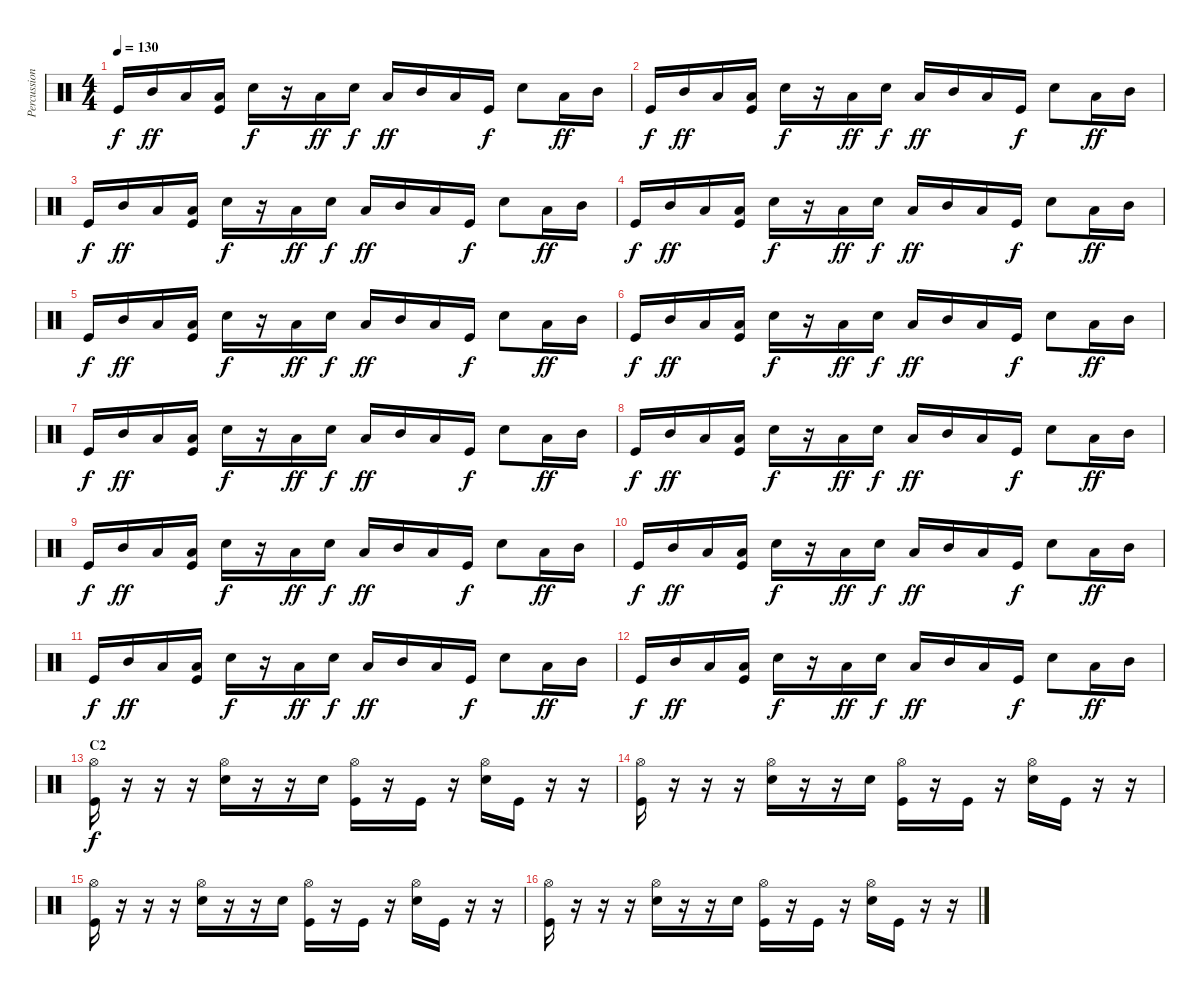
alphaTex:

\track ("Percussions" "Percussion") {instrument percussion}
\staff {score}
\articulation defaults
\ts (4 4)
\tempo 130
\clef neutral
\ks c "Kick (hit)".16{dy f} "Mid Tom (hit)".16{dy ff} "Low Tom (hit)".16
("Low Tom (hit)" "Kick (hit)").16 "Snare (hit) 2".16{dy f} r.16 "Low Tom (hit)".16{dy ff} "Snare (hit) 2".16{dy f} "Low Tom (hit)".16{dy ff} "Mid Tom (hit)".16 "Low Tom (hit)".16 "Kick (hit)".16{dy f} "Snare (hit) 2".8 "Low Tom (hit)".16{dy ff} "Mid Tom (hit)".16 |
"Kick (hit)".16{dy f} "Mid Tom (hit)".16{dy ff} "Low Tom (hit)".16 ("Low Tom (hit)" "Kick (hit)").16 "Snare (hit) 2".16{dy f} r.16 "Low Tom (hit)".16{dy ff} "Snare (hit) 2".16{dy f} "Low Tom (hit)".16{dy ff} "Mid Tom (hit)".16 "Low Tom (hit)".16 "Kick (hit)".16{dy f} "Snare (hit) 2".8 "Low Tom (hit)".16{dy ff} "Mid Tom (hit)".16 |
"Kick (hit)".16{dy f} "Mid Tom (hit)".16{dy ff} "Low Tom (hit)".16 ("Low Tom (hit)" "Kick (hit)").16 "Snare (hit) 2".16{dy f} r.16 "Low Tom (hit)".16{dy ff} "Snare (hit) 2".16{dy f} "Low Tom (hit)".16{dy ff} "Mid Tom (hit)".16 "Low Tom (hit)".16 "Kick (hit)".16{dy f} "Snare (hit) 2".8 "Low Tom (hit)".16{dy ff} "Mid Tom (hit)".16 |
"Kick (hit)".16{dy f} "Mid Tom (hit)".16{dy ff} "Low Tom (hit)".16 ("Low Tom (hit)" "Kick (hit)").16 "Snare (hit) 2".16{dy f} r.16 "Low Tom (hit)".16{dy ff} "Snare (hit) 2".16{dy f} "Low Tom (hit)".16{dy ff} "Mid Tom (hit)".16 "Low Tom (hit)".16 "Kick (hit)".16{dy f} "Snare (hit) 2".8 "Low Tom (hit)".16{dy ff} "Mid Tom (hit)".16 |
"Kick (hit)".16{dy f} "Mid Tom (hit)".16{dy ff} "Low Tom (hit)".16 ("Low Tom (hit)" "Kick (hit)").16 "Snare (hit) 2".16{dy f} r.16 "Low Tom (hit)".16{dy ff} "Snare (hit) 2".16{dy f} "Low Tom (hit)".16{dy ff} "Mid Tom (hit)".16 "Low Tom (hit)".16 "Kick (hit)".16{dy f} "Snare (hit) 2".8 "Low Tom (hit)".16{dy ff} "Mid Tom (hit)".16 |
"Kick (hit)".16{dy f} "Mid Tom (hit)".16{dy ff} "Low Tom (hit)".16 ("Low Tom (hit)" "Kick (hit)").16 "Snare (hit) 2".16{dy f} r.16 "Low Tom (hit)".16{dy ff} "Snare (hit) 2".16{dy f} "Low Tom (hit)".16{dy ff} "Mid Tom (hit)".16 "Low Tom (hit)".16 "Kick (hit)".16{dy f} "Snare (hit) 2".8 "Low Tom (hit)".16{dy ff} "Mid Tom (hit)".16 |
"Kick (hit)".16{dy f} "Mid Tom (hit)".16{dy ff} "Low Tom (hit)".16 ("Low Tom (hit)" "Kick (hit)").16 "Snare (hit) 2".16{dy f} r.16 "Low Tom (hit)".16{dy ff} "Snare (hit) 2".16{dy f} "Low Tom (hit)".16{dy ff} "Mid Tom (hit)".16 "Low Tom (hit)".16 "Kick (hit)".16{dy f} "Snare (hit) 2".8 "Low Tom (hit)".16{dy ff} "Mid Tom (hit)".16 |
"Kick (hit)".16{dy f} "Mid Tom (hit)".16{dy ff} "Low Tom (hit)".16 ("Low Tom (hit)" "Kick (hit)").16 "Snare (hit) 2".16{dy f} r.16 "Low Tom (hit)".16{dy ff} "Snare (hit) 2".16{dy f} "Low Tom (hit)".16{dy ff} "Mid Tom (hit)".16 "Low Tom (hit)".16 "Kick (hit)".16{dy f} "Snare (hit) 2".8 "Low Tom (hit)".16{dy ff} "Mid Tom (hit)".16 |
"Kick (hit)".16{dy f} "Mid Tom (hit)".16{dy ff} "Low Tom (hit)".16 ("Low Tom (hit)" "Kick (hit)").16 "Snare (hit) 2".16{dy f} r.16 "Low Tom (hit)".16{dy ff} "Snare (hit) 2".16{dy f} "Low Tom (hit)".16{dy ff} "Mid Tom (hit)".16 "Low Tom (hit)".16 "Kick (hit)".16{dy f} "Snare (hit) 2".8 "Low Tom (hit)".16{dy ff} "Mid Tom (hit)".16 |
"Kick (hit)".16{dy f} "Mid Tom (hit)".16{dy ff} "Low Tom (hit)".16 ("Low Tom (hit)" "Kick (hit)").16 "Snare (hit) 2".16{dy f} r.16 "Low Tom (hit)".16{dy ff} "Snare (hit) 2".16{dy f} "Low Tom (hit)".16{dy ff} "Mid Tom (hit)".16 "Low Tom (hit)".16 "Kick (hit)".16{dy f} "Snare (hit) 2".8 "Low Tom (hit)".16{dy ff} "Mid Tom (hit)".16 |
"Kick (hit)".16{dy f} "Mid Tom (hit)".16{dy ff} "Low Tom (hit)".16 ("Low Tom (hit)" "Kick (hit)").16 "Snare (hit) 2".16{dy f} r.16 "Low Tom (hit)".16{dy ff} "Snare (hit) 2".16{dy f} "Low Tom (hit)".16{dy ff} "Mid Tom (hit)".16 "Low Tom (hit)".16 "Kick (hit)".16{dy f} "Snare (hit) 2".8 "Low Tom (hit)".16{dy ff} "Mid Tom (hit)".16 |
"Kick (hit)".16{dy f} "Mid Tom (hit)".16{dy ff} "Low Tom (hit)".16 ("Low Tom (hit)" "Kick (hit)").16 "Snare (hit) 2".16{dy f} r.16 "Low Tom (hit)".16{dy ff} "Snare (hit) 2".16{dy f} "Low Tom (hit)".16{dy ff} "Mid Tom (hit)".16 "Low Tom (hit)".16 "Kick (hit)".16{dy f} "Snare (hit) 2".8 "Low Tom (hit)".16{dy ff} "Mid Tom (hit)".16 |
\section ("" "C2")
("Hi-Hat (open)" "Kick (hit)").16{dy f} r.16 r.16 r.16 ("Hi-Hat (open)" "Snare (hit) 2").16 r.16 r.16 "Snare (hit) 2".16 ("Hi-Hat (open)" "Kick (hit)").16 r.16 "Kick (hit)".16 r.16 ("Hi-Hat (open)" "Snare (hit) 2").16 "Kick (hit)".16 r.16 r.16 |
("Hi-Hat (open)" "Kick (hit)").16 r.16 r.16 r.16 ("Hi-Hat (open)" "Snare (hit) 2").16 r.16 r.16 "Snare (hit) 2".16 ("Hi-Hat (open)" "Kick (hit)").16 r.16 "Kick (hit)".16 r.16 ("Hi-Hat (open)" "Snare (hit) 2").16 "Kick (hit)".16 r.16 r.16 |
("Hi-Hat (open)" "Kick (hit)").16 r.16 r.16 r.16 ("Hi-Hat (open)" "Snare (hit) 2").16 r.16 r.16 "Snare (hit) 2".16 ("Hi-Hat (open)" "Kick (hit)").16 r.16 "Kick (hit)".16 r.16 ("Hi-Hat (open)" "Snare (hit) 2").16 "Kick (hit)".16 r.16 r.16 |
("Hi-Hat (open)" "Kick (hit)").16 r.16 r.16 r.16 ("Hi-Hat (open)" "Snare (hit) 2").16 r.16 r.16 "Snare (hit) 2".16 ("Hi-Hat (open)" "Kick (hit)").16 r.16 "Kick (hit)".16 r.16 ("Hi-Hat (open)" "Snare (hit) 2").16 "Kick (hit)".16 r.16 r.16
